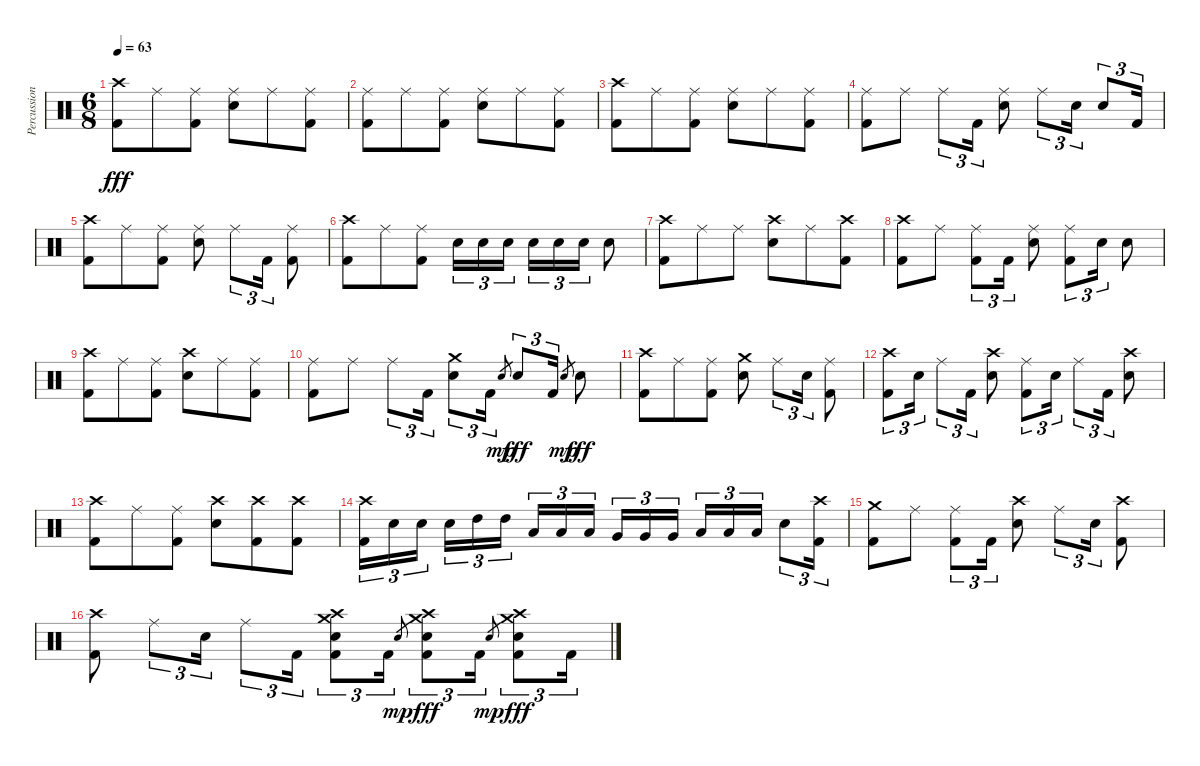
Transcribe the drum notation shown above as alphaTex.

\track ("Percussion" "Percussion") {instrument percussion}
\staff {score}
\articulation defaults
\ts (6 8)
\tempo 63
\clef neutral
\ks c
("Crash high (hit)" "Kick (hit) 2").8{dy fff} "Ride (middle)".8 ("Ride (middle)" "Kick (hit) 2").8 ("Ride (middle)" "Electric Snare (hit)").8 "Ride (middle)".8 ("Ride (middle)" "Kick (hit) 2").8 |
("Ride (middle)" "Kick (hit) 2").8 "Ride (middle)".8 ("Ride (middle)" "Kick (hit) 2").8 ("Ride (middle)" "Electric Snare (hit)").8 "Ride (middle)".8 ("Ride (middle)" "Kick (hit) 2").8 |
("Crash high (hit)" "Kick (hit) 2").8 "Ride (middle)".8 ("Ride (middle)" "Kick (hit) 2").8 ("Ride (middle)" "Electric Snare (hit)").8 "Ride (middle)".8 ("Ride (middle)" "Kick (hit) 2").8 |
("Ride (middle)" "Kick (hit) 2").8 "Ride (middle)".8 "Ride (middle)".8{tu (3 2)} "Kick (hit) 2".16{tu (3 2)} ("Ride (middle)" "Electric Snare (hit)").8 "Ride (middle)".8{tu (3 2)} "Electric Snare (hit)".16{tu (3 2)} "Electric Snare (hit)".8{tu (3 2)} "Kick (hit) 2".16{tu (3 2)} |
("Crash high (hit)" "Kick (hit) 2").8 "Ride (middle)".8 ("Ride (middle)" "Kick (hit) 2").8 ("Ride (middle)" "Electric Snare (hit)").8 "Ride (middle)".8{tu (3 2)} "Kick (hit) 2".16{tu (3 2)} ("Ride (middle)" "Kick (hit) 2").8 |
("Crash high (hit)" "Kick (hit) 2").8 "Ride (middle)".8 ("Ride (middle)" "Kick (hit) 2").8 "Electric Snare (hit)".16{tu (3 2)} "Electric Snare (hit)".16{tu (3 2)} "Electric Snare (hit)".16{tu (3 2) beam splitsecondary} "Electric Snare (hit)".16{tu (3 2)} "Electric Snare (hit)".16{tu (3 2)} "Electric Snare (hit)".16{tu (3 2)} "Electric Snare (hit)".8 |
("Crash high (hit)" "Kick (hit) 2").8 "Ride (middle)".8 "Ride (middle)".8 ("Crash high (hit)" "Electric Snare (hit)").8 "Ride (middle)".8 ("Crash high (hit)" "Kick (hit) 2").8 |
("Crash high (hit)" "Kick (hit) 2").8 "Ride (middle)".8 ("Ride (middle)" "Kick (hit) 2").8{tu (3 2)} "Kick (hit) 2".16{tu (3 2)} ("Ride (middle)" "Electric Snare (hit)").8 ("Ride (middle)" "Kick (hit) 2").8{tu (3 2)} "Electric Snare (hit)".16{tu (3 2)} "Electric Snare (hit)".8 |
("Crash high (hit)" "Kick (hit) 2").8 "Ride (middle)".8 ("Ride (middle)" "Kick (hit) 2").8 ("Crash high (hit)" "Electric Snare (hit)").8 "Ride (middle)".8 ("Ride (middle)" "Kick (hit) 2").8 |
("Ride (middle)" "Kick (hit) 2").8 "Ride (middle)".8 "Ride (middle)".8{tu (3 2)} "Kick (hit) 2".16{tu (3 2)} ("Crash medium (hit)" "Electric Snare (hit)").8{tu (3 2)} "Kick (hit) 2".16{tu (3 2)} "Electric Snare (hit)".8{gr dy mp} "Electric Snare (hit)".8{tu (3 2) dy fff} "Kick (hit) 2".16{tu (3 2)} "Electric Snare (hit)".8{gr dy mp} "Electric Snare (hit)".8{dy fff} |
("Crash high (hit)" "Kick (hit) 2").8 "Ride (middle)".8 ("Ride (middle)" "Kick (hit) 2").8 ("Crash medium (hit)" "Electric Snare (hit)").8 "Ride (middle)".8{tu (3 2)} "Electric Snare (hit)".16{tu (3 2)} ("Ride (middle)" "Kick (hit) 2").8 |
("Crash high (hit)" "Kick (hit) 2").8{tu (3 2)} "Electric Snare (hit)".16{tu (3 2)} "Ride (middle)".8{tu (3 2)} "Kick (hit) 2".16{tu (3 2)} ("Crash high (hit)" "Electric Snare (hit)").8 ("Ride (middle)" "Kick (hit) 2").8{tu (3 2)} "Electric Snare (hit)".16{tu (3 2)} "Ride (middle)".8{tu (3 2)} "Kick (hit) 2".16{tu (3 2)} ("Crash high (hit)" "Electric Snare (hit)").8 |
("Crash high (hit)" "Kick (hit) 2").8 "Ride (middle)".8 ("Ride (middle)" "Kick (hit) 2").8 ("Crash high (hit)" "Electric Snare (hit)").8 ("Crash high (hit)" "Kick (hit) 2").8 ("Crash high (hit)" "Kick (hit) 2").8 |
("Crash high (hit)" "Kick (hit) 2").16{tu (3 2)} "Electric Snare (hit)".16{tu (3 2)} "Electric Snare (hit)".16{tu (3 2) beam splitsecondary} "Electric Snare (hit)".16{tu (3 2)} "High Tom (hit)".16{tu (3 2)} "High Tom (hit)".16{tu (3 2) beam splitsecondary} "Low Tom (hit)".16{tu (3 2)} "Low Tom (hit)".16{tu (3 2)} "Low Tom (hit)".16{tu (3 2)} "Very Low Tom (hit)".16{tu (3 2)} "Very Low Tom (hit)".16{tu (3 2)} "Very Low Tom (hit)".16{tu (3 2) beam splitsecondary} "Low Floor Tom (hit)".16{tu (3 2)} "Low Floor Tom (hit)".16{tu (3 2)} "Low Floor Tom (hit)".16{tu (3 2)} "Electric Snare (hit)".8{tu (3 2)} ("Crash high (hit)" "Kick (hit) 2").16{tu (3 2)} |
("Crash medium (hit)" "Kick (hit) 2").8 "Ride (middle)".8 ("Ride (middle)" "Kick (hit) 2").8{tu (3 2)} "Kick (hit) 2".16{tu (3 2)} ("Crash high (hit)" "Electric Snare (hit)").8 "Ride (middle)".8{tu (3 2)} "Electric Snare (hit)".16{tu (3 2)} ("Crash high (hit)" "Kick (hit) 2").8 |
("Crash high (hit)" "Kick (hit) 2").8 "Ride (middle)".8{tu (3 2)} "Electric Snare (hit)".16{tu (3 2)} "Ride (middle)".8{tu (3 2)} "Kick (hit) 2".16{tu (3 2)} ("Crash high (hit)" "Crash medium (hit)" "Electric Snare (hit)" "Kick (hit) 2").8{tu (3 2)} "Kick (hit) 2".16{tu (3 2)} "Electric Snare (hit)".8{gr dy mp} ("Crash high (hit)" "Crash medium (hit)" "Electric Snare (hit)" "Kick (hit) 2").8{tu (3 2) dy fff} "Kick (hit) 2".16{tu (3 2)} "Electric Snare (hit)".8{gr dy mp} ("Crash high (hit)" "Crash medium (hit)" "Electric Snare (hit)" "Kick (hit) 2").8{tu (3 2) dy fff} "Kick (hit) 2".16{tu (3 2)}
